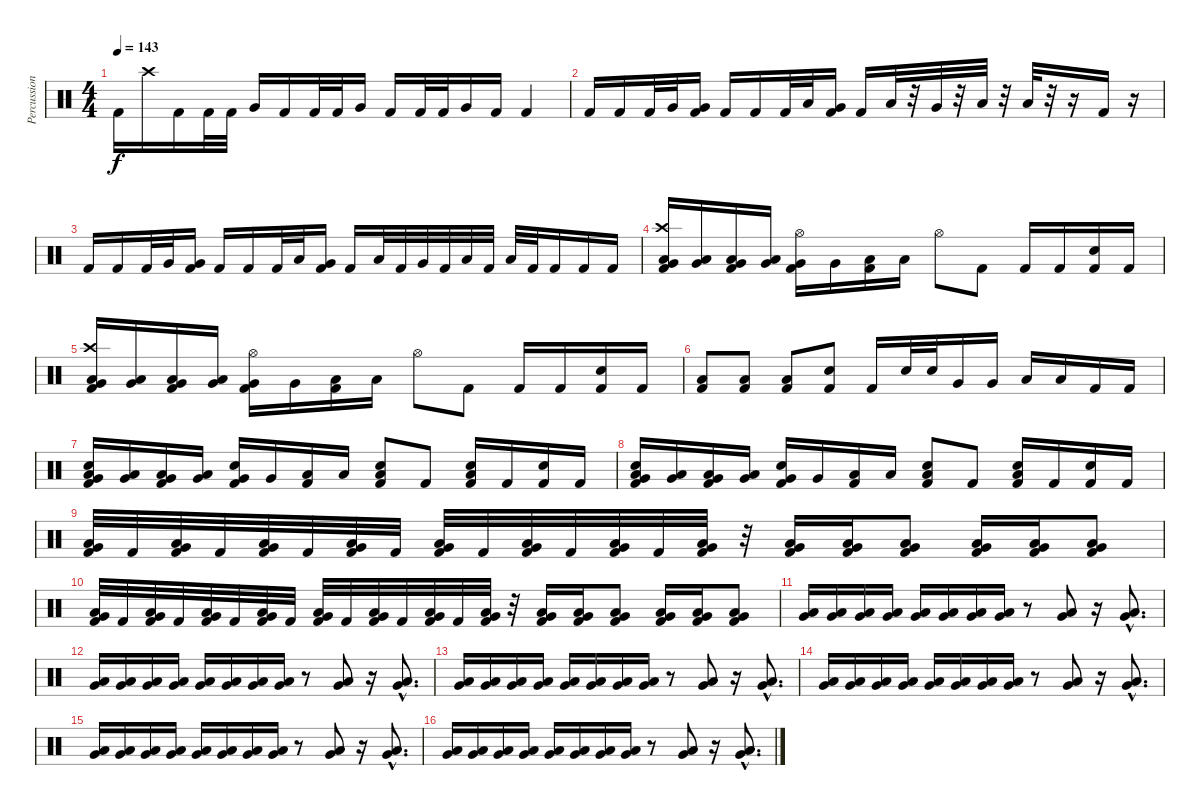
\track ("Percussions" "Percussion") {instrument percussion}
\staff {score}
\articulation defaults
\ts (4 4)
\tempo 143
\clef neutral
\ks c "Kick (hit) 2".16{dy f} "Crash high (hit)".16 "Kick (hit) 2".16 "Kick (hit) 2".32 "Kick (hit) 2".32 "Very Low Tom (hit)".16 "Kick (hit) 2".16 "Kick (hit) 2".32 "Kick (hit) 2".32 "Very Low Tom (hit)".16 "Kick (hit) 2".16 "Kick (hit) 2".32 "Kick (hit) 2".32 "Very Low Tom (hit)".16 "Kick (hit) 2".16 "Kick (hit) 2".4
|
"Kick (hit) 2".16 "Kick (hit) 2".16 "Kick (hit) 2".32 "Very Low Tom (hit)".32 ("Very Low Tom (hit)" "Kick (hit) 2").16 "Kick (hit) 2".16 "Kick (hit) 2".16 "Kick (hit) 2".32 "Low Floor Tom (hit)".32 ("Very Low Tom (hit)" "Kick (hit) 2").16 "Kick (hit) 2".16 "Low Floor Tom (hit)".32 r.32 "Very Low Tom (hit)".32 r.32 "Low Floor Tom (hit)".32 r.32 "Low Tom (hit)".32 r.32 r.16 "Kick (hit) 2".16 r.16 |
"Kick (hit) 2".16 "Kick (hit) 2".16 "Kick (hit) 2".32 "Very Low Tom (hit)".32 ("Very Low Tom (hit)" "Kick (hit) 2").16 "Kick (hit) 2".16 "Kick (hit) 2".16 "Kick (hit) 2".32 "Low Floor Tom (hit)".32 ("Very Low Tom (hit)" "Kick (hit) 2").16 "Kick (hit) 2".16 "Low Floor Tom (hit)".32 "Kick (hit) 2".32 "Very Low Tom (hit)".32 "Kick (hit) 2".32 "Low Floor Tom (hit)".32 "Kick (hit) 2".32 "Low Tom (hit)".32 "Kick (hit) 2".32 "Kick (hit) 2".16 "Kick (hit) 2".16 "Kick (hit) 2".16 |
("Crash high (hit)" "Very Low Tom (hit)" "Low Floor Tom (hit)" "Kick (hit) 2").16 ("Very Low Tom (hit)" "Low Floor Tom (hit)").16 ("Very Low Tom (hit)" "Low Floor Tom (hit)" "Kick (hit) 2").16 ("Very Low Tom (hit)" "Low Floor Tom (hit)").16 ("Hi-Hat (open)" "Very Low Tom (hit)" "Kick (hit) 2").16 "Very Low Tom (hit)".16 ("Low Floor Tom (hit)" "Kick (hit) 2").16 "Low Floor Tom (hit)".16 "Hi-Hat (open)".8 "Kick (hit) 2".8 "Kick (hit) 2".16 "Kick (hit) 2".16 ("Snare (hit) 2" "Kick (hit) 2").16 "Kick (hit) 2".16 |
("Crash high (hit)" "Very Low Tom (hit)" "Low Floor Tom (hit)" "Kick (hit) 2").16 ("Very Low Tom (hit)" "Low Floor Tom (hit)").16 ("Very Low Tom (hit)" "Low Floor Tom (hit)" "Kick (hit) 2").16 ("Very Low Tom (hit)" "Low Floor Tom (hit)").16 ("Hi-Hat (open)" "Very Low Tom (hit)" "Kick (hit) 2").16 "Very Low Tom (hit)".16 ("Low Floor Tom (hit)" "Kick (hit) 2").16 "Low Floor Tom (hit)".16 "Hi-Hat (open)".8 "Kick (hit) 2".8 "Kick (hit) 2".16 "Kick (hit) 2".16 ("Snare (hit) 2" "Kick (hit) 2").16 "Kick (hit) 2".16 |
("Kick (hit) 2" "Low Floor Tom (hit)").8 ("Kick (hit) 2" "Low Tom (hit)").8 ("Kick (hit) 2" "Low Floor Tom (hit)").8 ("Kick (hit) 2" "Snare (hit) 2").8 "Kick (hit) 2".16 "Snare (hit) 2".32 "Snare (hit) 2".32 "Very Low Tom (hit)".16 "Very Low Tom (hit)".16 "Low Floor Tom (hit)".16 "Low Floor Tom (hit)".16 "Kick (hit) 2".16 "Kick (hit) 2".16 |
("Snare (hit) 2" "Very Low Tom (hit)" "Low Floor Tom (hit)" "Kick (hit) 2").16 ("Very Low Tom (hit)" "Low Floor Tom (hit)").16 ("Very Low Tom (hit)" "Low Floor Tom (hit)" "Kick (hit) 2").16 ("Very Low Tom (hit)" "Low Floor Tom (hit)").16 ("Snare (hit) 2" "Very Low Tom (hit)" "Kick (hit) 2").16 "Very Low Tom (hit)".16 ("Low Floor Tom (hit)" "Kick (hit) 2").16 "Low Floor Tom (hit)".16 ("Snare (hit) 2" "Low Floor Tom (hit)" "Kick (hit) 2").8 "Kick (hit) 2".8 ("Snare (hit) 2" "Low Floor Tom (hit)" "Kick (hit) 2").16 "Kick (hit) 2".16 ("Snare (hit) 2" "Kick (hit) 2").16 "Kick (hit) 2".16 |
("Snare (hit) 2" "Very Low Tom (hit)" "Low Floor Tom (hit)" "Kick (hit) 2").16 ("Very Low Tom (hit)" "Low Floor Tom (hit)").16 ("Very Low Tom (hit)" "Low Floor Tom (hit)" "Kick (hit) 2").16 ("Very Low Tom (hit)" "Low Floor Tom (hit)").16 ("Snare (hit) 2" "Very Low Tom (hit)" "Kick (hit) 2").16 "Very Low Tom (hit)".16 ("Low Floor Tom (hit)" "Kick (hit) 2").16 "Low Floor Tom (hit)".16 ("Snare (hit) 2" "Low Floor Tom (hit)" "Kick (hit) 2").8 "Kick (hit) 2".8 ("Snare (hit) 2" "Low Floor Tom (hit)" "Kick (hit) 2").16 "Kick (hit) 2".16 ("Snare (hit) 2" "Kick (hit) 2").16 "Kick (hit) 2".16 |
("Low Floor Tom (hit)" "Very Low Tom (hit)" "Kick (hit) 2").32 "Kick (hit) 2".32 ("Low Floor Tom (hit)" "Very Low Tom (hit)" "Kick (hit) 2").32 "Kick (hit) 2".32 ("Low Floor Tom (hit)" "Very Low Tom (hit)" "Kick (hit) 2").32 "Kick (hit) 2".32 ("Low Floor Tom (hit)" "Very Low Tom (hit)" "Kick (hit) 2").32 "Kick (hit) 2".32 ("Low Floor Tom (hit)" "Very Low Tom (hit)" "Kick (hit) 2").32 "Kick (hit) 2".32 ("Low Floor Tom (hit)" "Very Low Tom (hit)" "Kick (hit) 2").32 "Kick (hit) 2".32 ("Low Floor Tom (hit)" "Very Low Tom (hit)" "Kick (hit) 2").32 "Kick (hit) 2".32 ("Low Floor Tom (hit)" "Very Low Tom (hit)" "Kick (hit) 2").32 r.32 ("Very Low Tom (hit)" "Low Floor Tom (hit)" "Kick (hit) 2").16 ("Very Low Tom (hit)" "Low Floor Tom (hit)" "Kick (hit) 2").16 ("Very Low Tom (hit)" "Low Floor Tom (hit)" "Kick (hit) 2").8 ("Very Low Tom (hit)" "Low Floor Tom (hit)" "Kick (hit) 2").16 ("Very Low Tom (hit)" "Low Floor Tom (hit)" "Kick (hit) 2").16 ("Very Low Tom (hit)" "Low Floor Tom (hit)" "Kick (hit) 2").8 |
("Low Floor Tom (hit)" "Very Low Tom (hit)" "Kick (hit) 2").32 "Kick (hit) 2".32 ("Low Floor Tom (hit)" "Very Low Tom (hit)" "Kick (hit) 2").32 "Kick (hit) 2".32 ("Low Floor Tom (hit)" "Very Low Tom (hit)" "Kick (hit) 2").32 "Kick (hit) 2".32 ("Low Floor Tom (hit)" "Very Low Tom (hit)" "Kick (hit) 2").32 "Kick (hit) 2".32 ("Low Floor Tom (hit)" "Very Low Tom (hit)" "Kick (hit) 2").32 "Kick (hit) 2".32 ("Low Floor Tom (hit)" "Very Low Tom (hit)" "Kick (hit) 2").32 "Kick (hit) 2".32 ("Low Floor Tom (hit)" "Very Low Tom (hit)" "Kick (hit) 2").32 "Kick (hit) 2".32 ("Low Floor Tom (hit)" "Very Low Tom (hit)" "Kick (hit) 2").32 r.32 ("Very Low Tom (hit)" "Low Floor Tom (hit)" "Kick (hit) 2").16 ("Very Low Tom (hit)" "Low Floor Tom (hit)" "Kick (hit) 2").16 ("Very Low Tom (hit)" "Low Floor Tom (hit)" "Kick (hit) 2").8 ("Very Low Tom (hit)" "Low Floor Tom (hit)" "Kick (hit) 2").16 ("Very Low Tom (hit)" "Low Floor Tom (hit)" "Kick (hit) 2").16 ("Very Low Tom (hit)" "Low Floor Tom (hit)" "Kick (hit) 2").8 |
("Low Floor Tom (hit)" "Very Low Tom (hit)").16 ("Low Floor Tom (hit)" "Very Low Tom (hit)").16 ("Low Floor Tom (hit)" "Very Low Tom (hit)").16 ("Low Floor Tom (hit)" "Very Low Tom (hit)").16 ("Low Floor Tom (hit)" "Very Low Tom (hit)").16 ("Low Floor Tom (hit)" "Very Low Tom (hit)").16 ("Low Floor Tom (hit)" "Very Low Tom (hit)").16 ("Low Floor Tom (hit)" "Very Low Tom (hit)").16 r.8 ("Low Floor Tom (hit)" "Very Low Tom (hit)").8 r.16 ("Low Floor Tom (hit)"{hac} "Very Low Tom (hit)"{hac}).8{d} |
("Low Floor Tom (hit)" "Very Low Tom (hit)").16 ("Low Floor Tom (hit)" "Very Low Tom (hit)").16 ("Low Floor Tom (hit)" "Very Low Tom (hit)").16 ("Low Floor Tom (hit)" "Very Low Tom (hit)").16 ("Low Floor Tom (hit)" "Very Low Tom (hit)").16 ("Low Floor Tom (hit)" "Very Low Tom (hit)").16 ("Low Floor Tom (hit)" "Very Low Tom (hit)").16 ("Low Floor Tom (hit)" "Very Low Tom (hit)").16 r.8 ("Low Floor Tom (hit)" "Very Low Tom (hit)").8 r.16 ("Low Floor Tom (hit)"{hac} "Very Low Tom (hit)"{hac}).8{d} |
("Low Floor Tom (hit)" "Very Low Tom (hit)").16 ("Low Floor Tom (hit)" "Very Low Tom (hit)").16 ("Low Floor Tom (hit)" "Very Low Tom (hit)").16 ("Low Floor Tom (hit)" "Very Low Tom (hit)").16 ("Low Floor Tom (hit)" "Very Low Tom (hit)").16 ("Low Floor Tom (hit)" "Very Low Tom (hit)").16 ("Low Floor Tom (hit)" "Very Low Tom (hit)").16 ("Low Floor Tom (hit)" "Very Low Tom (hit)").16 r.8 ("Low Floor Tom (hit)" "Very Low Tom (hit)").8 r.16 ("Low Floor Tom (hit)"{hac} "Very Low Tom (hit)"{hac}).8{d} |
("Low Floor Tom (hit)" "Very Low Tom (hit)").16 ("Low Floor Tom (hit)" "Very Low Tom (hit)").16 ("Low Floor Tom (hit)" "Very Low Tom (hit)").16 ("Low Floor Tom (hit)" "Very Low Tom (hit)").16 ("Low Floor Tom (hit)" "Very Low Tom (hit)").16 ("Low Floor Tom (hit)" "Very Low Tom (hit)").16 ("Low Floor Tom (hit)" "Very Low Tom (hit)").16 ("Low Floor Tom (hit)" "Very Low Tom (hit)").16 r.8 ("Low Floor Tom (hit)" "Very Low Tom (hit)").8 r.16 ("Low Floor Tom (hit)"{hac} "Very Low Tom (hit)"{hac}).8{d} |
("Low Floor Tom (hit)" "Very Low Tom (hit)").16 ("Low Floor Tom (hit)" "Very Low Tom (hit)").16 ("Low Floor Tom (hit)" "Very Low Tom (hit)").16 ("Low Floor Tom (hit)" "Very Low Tom (hit)").16 ("Low Floor Tom (hit)" "Very Low Tom (hit)").16 ("Low Floor Tom (hit)" "Very Low Tom (hit)").16 ("Low Floor Tom (hit)" "Very Low Tom (hit)").16 ("Low Floor Tom (hit)" "Very Low Tom (hit)").16 r.8 ("Low Floor Tom (hit)" "Very Low Tom (hit)").8 r.16 ("Low Floor Tom (hit)"{hac} "Very Low Tom (hit)"{hac}).8{d} |
("Low Floor Tom (hit)" "Very Low Tom (hit)").16 ("Low Floor Tom (hit)" "Very Low Tom (hit)").16 ("Low Floor Tom (hit)" "Very Low Tom (hit)").16 ("Low Floor Tom (hit)" "Very Low Tom (hit)").16 ("Low Floor Tom (hit)" "Very Low Tom (hit)").16 ("Low Floor Tom (hit)" "Very Low Tom (hit)").16 ("Low Floor Tom (hit)" "Very Low Tom (hit)").16 ("Low Floor Tom (hit)" "Very Low Tom (hit)").16 r.8 ("Low Floor Tom (hit)" "Very Low Tom (hit)").8 r.16 ("Low Floor Tom (hit)"{hac} "Very Low Tom (hit)"{hac}).8{d}
